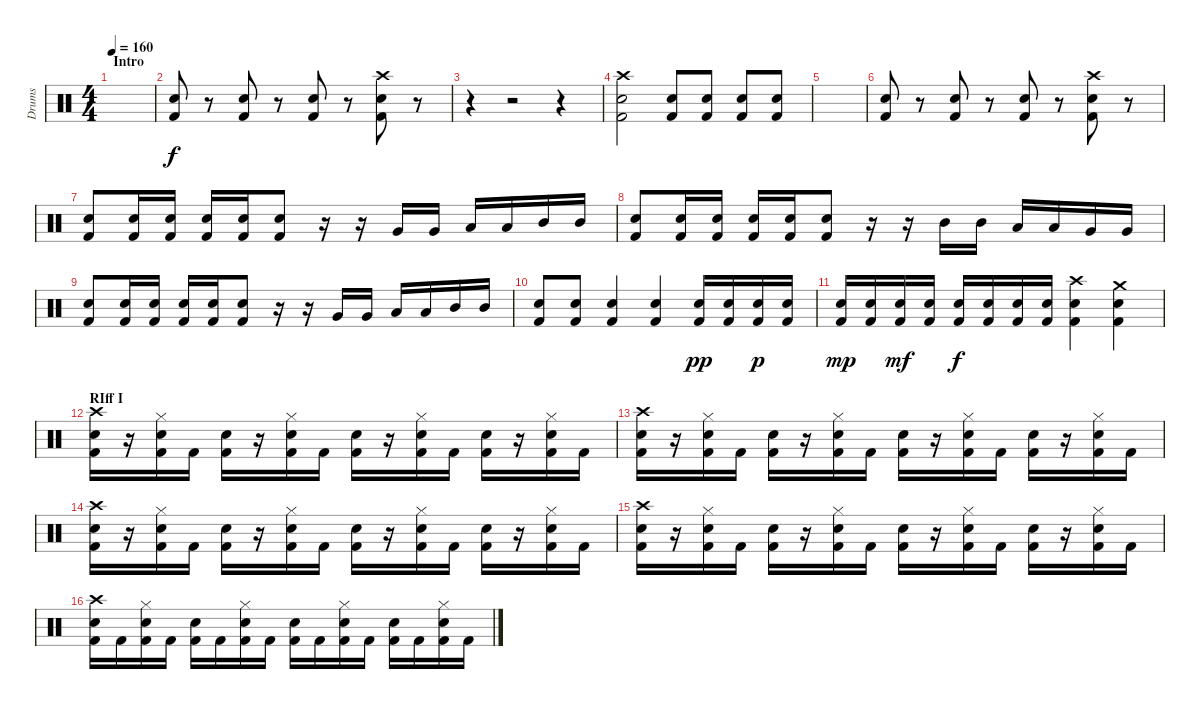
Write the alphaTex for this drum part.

\track ("Drums" "Drums") {instrument percussion}
\staff {score}
\articulation defaults
\ts (4 4)
\section ("" "Intro")
\tempo 160
\clef neutral
\ks c
|
("Kick (hit) 2" "Snare (hit) 2").8 r.8 ("Kick (hit) 2" "Snare (hit) 2").8 r.8 ("Kick (hit) 2" "Snare (hit) 2").8 r.8 ("Kick (hit) 2" "Snare (hit) 2" "Crash high (hit)").8 r.8 |
r.4 r.2 r.4 |
("Kick (hit) 2" "Snare (hit) 2" "Crash high (hit)").2 ("Kick (hit) 2" "Snare (hit) 2").8 ("Kick (hit) 2" "Snare (hit) 2").8 ("Kick (hit) 2" "Snare (hit) 2").8 ("Kick (hit) 2" "Snare (hit) 2").8 |
|
("Kick (hit) 2" "Snare (hit) 2").8 r.8 ("Kick (hit) 2" "Snare (hit) 2").8 r.8 ("Kick (hit) 2" "Snare (hit) 2").8 r.8 ("Kick (hit) 2" "Snare (hit) 2" "Crash high (hit)").8 r.8 |
("Kick (hit) 2" "Snare (hit) 2").8 ("Kick (hit) 2" "Snare (hit) 2").16 ("Kick (hit) 2" "Snare (hit) 2").16 ("Kick (hit) 2" "Snare (hit) 2").16 ("Kick (hit) 2" "Snare (hit) 2").16 ("Kick (hit) 2" "Snare (hit) 2").8 r.16 r.16 "Very Low Tom (hit)".16 "Very Low Tom (hit)".16 "Low Tom (hit)".16 "Low Tom (hit)".16 "Mid Tom (hit)".16 "Mid Tom (hit)".16 |
("Kick (hit) 2" "Snare (hit) 2").8 ("Kick (hit) 2" "Snare (hit) 2").16 ("Kick (hit) 2" "Snare (hit) 2").16 ("Kick (hit) 2" "Snare (hit) 2").16 ("Kick (hit) 2" "Snare (hit) 2").16 ("Kick (hit) 2" "Snare (hit) 2").8 r.16 r.16 "Mid Tom (hit)".16 "Mid Tom (hit)".16 "Low Tom (hit)".16 "Low Tom (hit)".16 "Very Low Tom (hit)".16 "Very Low Tom (hit)".16 |
("Kick (hit) 2" "Snare (hit) 2").8 ("Kick (hit) 2" "Snare (hit) 2").16 ("Kick (hit) 2" "Snare (hit) 2").16 ("Kick (hit) 2" "Snare (hit) 2").16 ("Kick (hit) 2" "Snare (hit) 2").16 ("Kick (hit) 2" "Snare (hit) 2").8 r.16 r.16 "Very Low Tom (hit)".16 "Very Low Tom (hit)".16 "Low Tom (hit)".16 "Low Tom (hit)".16 "Mid Tom (hit)".16 "Mid Tom (hit)".16 |
("Kick (hit) 2" "Snare (hit) 2").8 ("Kick (hit) 2" "Snare (hit) 2").8 ("Kick (hit) 2" "Snare (hit) 2").4 ("Kick (hit) 2" "Snare (hit) 2").4 ("Kick (hit) 2" "Snare (hit) 2").16{dy pp} ("Kick (hit) 2" "Snare (hit) 2").16 ("Kick (hit) 2" "Snare (hit) 2").16{dy p} ("Kick (hit) 2" "Snare (hit) 2").16 |
("Kick (hit) 2" "Snare (hit) 2").16{dy mp} ("Kick (hit) 2" "Snare (hit) 2").16 ("Kick (hit) 2" "Snare (hit) 2").16{dy mf} ("Kick (hit) 2" "Snare (hit) 2").16 ("Kick (hit) 2" "Snare (hit) 2").16{dy f} ("Kick (hit) 2" "Snare (hit) 2").16 ("Kick (hit) 2" "Snare (hit) 2").16 ("Kick (hit) 2" "Snare (hit) 2").16 ("Kick (hit) 2" "Snare (hit) 2" "Crash high (hit)").4 ("Kick (hit) 2" "Snare (hit) 2" "Crash medium (hit)").4 |
\section ("" "RIff I")
("Kick (hit) 2" "Snare (hit) 2" "Crash high (hit)").16 r.16 ("Kick (hit) 2" "Snare (hit) 2" "Hi-Hat (closed)").16 "Kick (hit) 2".16 ("Kick (hit) 2" "Snare (hit) 2").16 r.16 ("Kick (hit) 2" "Snare (hit) 2" "Hi-Hat (closed)").16 "Kick (hit) 2".16 ("Kick (hit) 2" "Snare (hit) 2").16 r.16 ("Kick (hit) 2" "Snare (hit) 2" "Hi-Hat (closed)").16 "Kick (hit) 2".16 ("Kick (hit) 2" "Snare (hit) 2").16 r.16 ("Kick (hit) 2" "Snare (hit) 2" "Hi-Hat (closed)").16 "Kick (hit) 2".16 |
("Kick (hit) 2" "Snare (hit) 2" "Crash high (hit)").16 r.16 ("Kick (hit) 2" "Snare (hit) 2" "Hi-Hat (closed)").16 "Kick (hit) 2".16 ("Kick (hit) 2" "Snare (hit) 2").16 r.16 ("Kick (hit) 2" "Snare (hit) 2" "Hi-Hat (closed)").16 "Kick (hit) 2".16 ("Kick (hit) 2" "Snare (hit) 2").16 r.16 ("Kick (hit) 2" "Snare (hit) 2" "Hi-Hat (closed)").16 "Kick (hit) 2".16 ("Kick (hit) 2" "Snare (hit) 2").16 r.16 ("Kick (hit) 2" "Snare (hit) 2" "Hi-Hat (closed)").16 "Kick (hit) 2".16 |
("Kick (hit) 2" "Snare (hit) 2" "Crash high (hit)").16 r.16 ("Kick (hit) 2" "Snare (hit) 2" "Hi-Hat (closed)").16 "Kick (hit) 2".16 ("Kick (hit) 2" "Snare (hit) 2").16 r.16 ("Kick (hit) 2" "Snare (hit) 2" "Hi-Hat (closed)").16 "Kick (hit) 2".16 ("Kick (hit) 2" "Snare (hit) 2").16 r.16 ("Kick (hit) 2" "Snare (hit) 2" "Hi-Hat (closed)").16 "Kick (hit) 2".16 ("Kick (hit) 2" "Snare (hit) 2").16 r.16 ("Kick (hit) 2" "Snare (hit) 2" "Hi-Hat (closed)").16 "Kick (hit) 2".16 |
("Kick (hit) 2" "Snare (hit) 2" "Crash high (hit)").16 r.16 ("Kick (hit) 2" "Snare (hit) 2" "Hi-Hat (closed)").16 "Kick (hit) 2".16 ("Kick (hit) 2" "Snare (hit) 2").16 r.16 ("Kick (hit) 2" "Snare (hit) 2" "Hi-Hat (closed)").16 "Kick (hit) 2".16 ("Kick (hit) 2" "Snare (hit) 2").16 r.16 ("Kick (hit) 2" "Snare (hit) 2" "Hi-Hat (closed)").16 "Kick (hit) 2".16 ("Kick (hit) 2" "Snare (hit) 2").16 r.16 ("Kick (hit) 2" "Snare (hit) 2" "Hi-Hat (closed)").16 "Kick (hit) 2".16 |
("Kick (hit) 2" "Snare (hit) 2" "Crash high (hit)").16 "Kick (hit) 2".16 ("Kick (hit) 2" "Snare (hit) 2" "Hi-Hat (closed)").16 "Kick (hit) 2".16 ("Kick (hit) 2" "Snare (hit) 2").16 "Kick (hit) 2".16 ("Kick (hit) 2" "Snare (hit) 2" "Hi-Hat (closed)").16 "Kick (hit) 2".16 ("Kick (hit) 2" "Snare (hit) 2").16 "Kick (hit) 2".16 ("Kick (hit) 2" "Snare (hit) 2" "Hi-Hat (closed)").16 "Kick (hit) 2".16 ("Kick (hit) 2" "Snare (hit) 2").16 "Kick (hit) 2".16 ("Kick (hit) 2" "Snare (hit) 2" "Hi-Hat (closed)").16 "Kick (hit) 2".16
